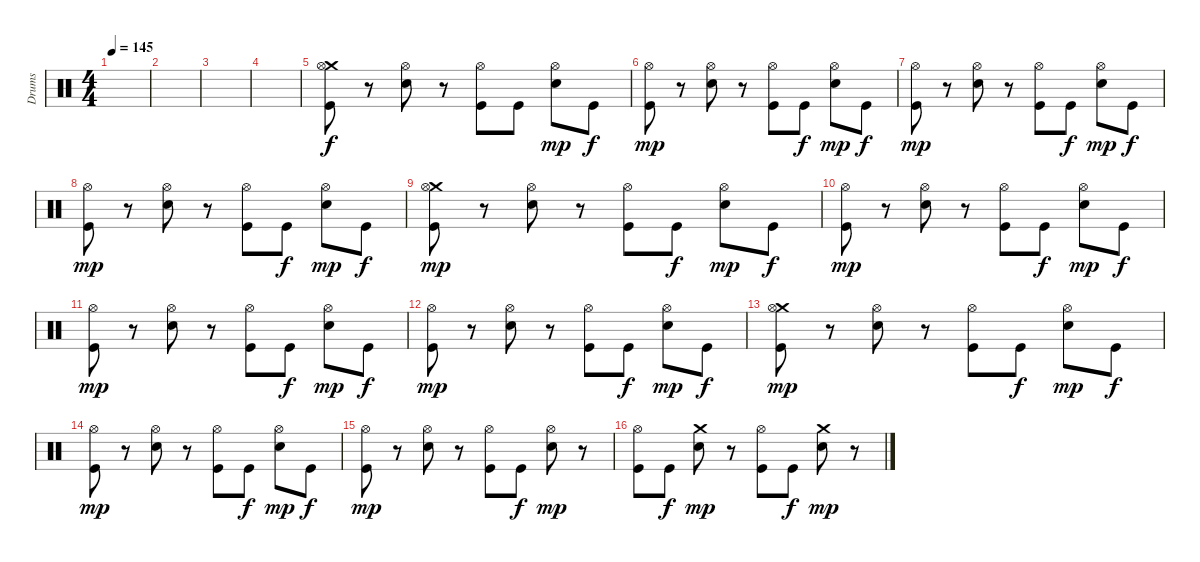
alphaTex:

\track ("Drums" "Drums") {instrument percussion}
\staff {score}
\articulation defaults
\ts (4 4)
\tempo 145
\clef neutral
\ks c
|
|
|
|
("Kick (hit)" "Crash medium (hit)" "Hi-Hat (open)").8 r.8 ("Snare (hit) 2" "Hi-Hat (open)").8 r.8 ("Kick (hit)" "Hi-Hat (open)").8 "Kick (hit)".8{dy f} ("Snare (hit) 2" "Hi-Hat (open)").8{dy mp} "Kick (hit)".8{dy f} |
("Kick (hit)" "Hi-Hat (open)").8{dy mp} r.8 ("Snare (hit) 2" "Hi-Hat (open)").8 r.8 ("Kick (hit)" "Hi-Hat (open)").8 "Kick (hit)".8{dy f} ("Snare (hit) 2" "Hi-Hat (open)").8{dy mp} "Kick (hit)".8{dy f} |
("Kick (hit)" "Hi-Hat (open)").8{dy mp} r.8 ("Snare (hit) 2" "Hi-Hat (open)").8 r.8 ("Kick (hit)" "Hi-Hat (open)").8 "Kick (hit)".8{dy f} ("Snare (hit) 2" "Hi-Hat (open)").8{dy mp} "Kick (hit)".8{dy f} |
("Kick (hit)" "Hi-Hat (open)").8{dy mp} r.8 ("Snare (hit) 2" "Hi-Hat (open)").8 r.8 ("Kick (hit)" "Hi-Hat (open)").8 "Kick (hit)".8{dy f} ("Snare (hit) 2" "Hi-Hat (open)").8{dy mp} "Kick (hit)".8{dy f} |
("Kick (hit)" "Crash medium (hit)" "Hi-Hat (open)").8{dy mp} r.8 ("Snare (hit) 2" "Hi-Hat (open)").8 r.8 ("Kick (hit)" "Hi-Hat (open)").8 "Kick (hit)".8{dy f} ("Snare (hit) 2" "Hi-Hat (open)").8{dy mp} "Kick (hit)".8{dy f} |
("Kick (hit)" "Hi-Hat (open)").8{dy mp} r.8 ("Snare (hit) 2" "Hi-Hat (open)").8 r.8 ("Kick (hit)" "Hi-Hat (open)").8 "Kick (hit)".8{dy f} ("Snare (hit) 2" "Hi-Hat (open)").8{dy mp} "Kick (hit)".8{dy f} |
("Kick (hit)" "Hi-Hat (open)").8{dy mp} r.8 ("Snare (hit) 2" "Hi-Hat (open)").8 r.8 ("Kick (hit)" "Hi-Hat (open)").8 "Kick (hit)".8{dy f} ("Snare (hit) 2" "Hi-Hat (open)").8{dy mp} "Kick (hit)".8{dy f} |
("Kick (hit)" "Hi-Hat (open)").8{dy mp} r.8 ("Snare (hit) 2" "Hi-Hat (open)").8 r.8 ("Kick (hit)" "Hi-Hat (open)").8 "Kick (hit)".8{dy f} ("Snare (hit) 2" "Hi-Hat (open)").8{dy mp} "Kick (hit)".8{dy f} |
("Kick (hit)" "Crash medium (hit)" "Hi-Hat (open)").8{dy mp} r.8 ("Snare (hit) 2" "Hi-Hat (open)").8 r.8 ("Kick (hit)" "Hi-Hat (open)").8 "Kick (hit)".8{dy f} ("Snare (hit) 2" "Hi-Hat (open)").8{dy mp} "Kick (hit)".8{dy f} |
("Kick (hit)" "Hi-Hat (open)").8{dy mp} r.8 ("Snare (hit) 2" "Hi-Hat (open)").8 r.8 ("Kick (hit)" "Hi-Hat (open)").8 "Kick (hit)".8{dy f} ("Snare (hit) 2" "Hi-Hat (open)").8{dy mp} "Kick (hit)".8{dy f} |
("Kick (hit)" "Hi-Hat (open)").8{dy mp} r.8 ("Snare (hit) 2" "Hi-Hat (open)").8 r.8 ("Kick (hit)" "Hi-Hat (open)").8 "Kick (hit)".8{dy f} ("Snare (hit) 2" "Hi-Hat (open)").8{dy mp} r.8 |
("Kick (hit)" "Hi-Hat (open)").8 "Kick (hit)".8{dy f} ("Snare (hit) 2" "Crash medium (hit)").8{dy mp} r.8 ("Kick (hit)" "Hi-Hat (open)").8 "Kick (hit)".8{dy f} ("Snare (hit) 2" "Crash medium (hit)").8{dy mp} r.8
